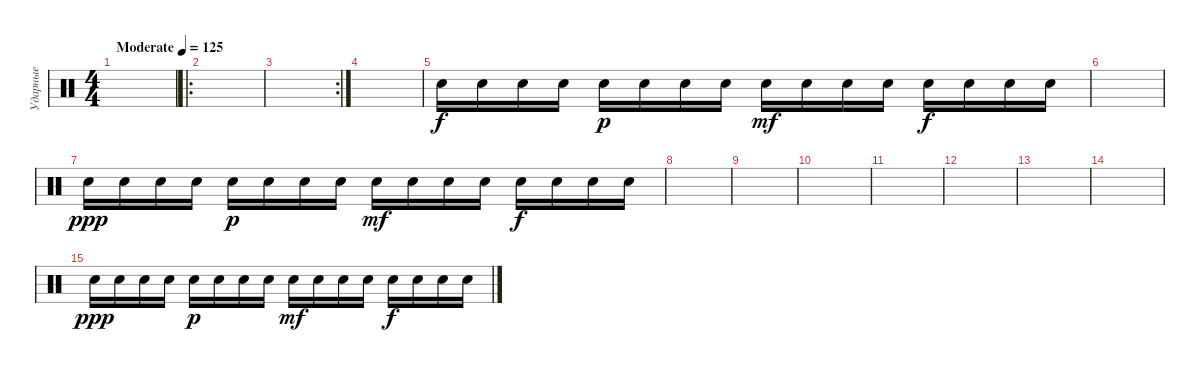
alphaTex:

\track ("Ударные" "Ударные") {instrument percussion}
\staff {score}
\articulation defaults
\ts (4 4)
\tempo (125 "Moderate")
\clef neutral
\ks c
|
\ro
|
\rc 2
|
|
"Snare (hit) 2".16 "Snare (hit) 2".16 "Snare (hit) 2".16 "Snare (hit) 2".16 "Snare (hit) 2".16{dy p} "Snare (hit) 2".16 "Snare (hit) 2".16 "Snare (hit) 2".16 "Snare (hit) 2".16{dy mf} "Snare (hit) 2".16 "Snare (hit) 2".16 "Snare (hit) 2".16 "Snare (hit) 2".16{dy f} "Snare (hit) 2".16 "Snare (hit) 2".16 "Snare (hit) 2".16 |
|
"Snare (hit) 2".16{dy ppp} "Snare (hit) 2".16 "Snare (hit) 2".16 "Snare (hit) 2".16 "Snare (hit) 2".16{dy p} "Snare (hit) 2".16 "Snare (hit) 2".16 "Snare (hit) 2".16 "Snare (hit) 2".16{dy mf} "Snare (hit) 2".16 "Snare (hit) 2".16 "Snare (hit) 2".16 "Snare (hit) 2".16{dy f} "Snare (hit) 2".16 "Snare (hit) 2".16 "Snare (hit) 2".16 |
|
|
|
|
|
|
|
"Snare (hit) 2".16{dy ppp} "Snare (hit) 2".16 "Snare (hit) 2".16 "Snare (hit) 2".16 "Snare (hit) 2".16{dy p} "Snare (hit) 2".16 "Snare (hit) 2".16 "Snare (hit) 2".16 "Snare (hit) 2".16{dy mf} "Snare (hit) 2".16 "Snare (hit) 2".16 "Snare (hit) 2".16 "Snare (hit) 2".16{dy f} "Snare (hit) 2".16 "Snare (hit) 2".16 "Snare (hit) 2".16
